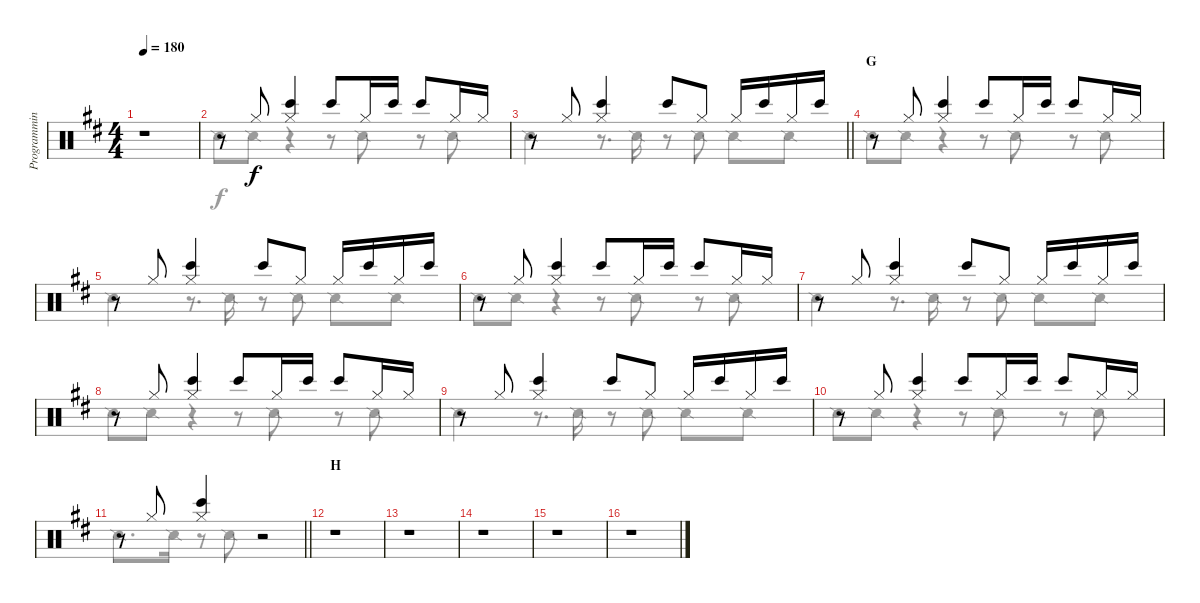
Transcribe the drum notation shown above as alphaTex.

\track ("Programming" "Programmin") {instrument percussion}
\staff {score}
\articulation defaults
\voice
\ts (4 4)
\tempo 180
\clef neutral
\ks d
r.1{dy f} |
r.8 "Hi-Hat (closed)".8 ("Hi-Hat (closed)" "Bongo High (hit)").4 "Bongo High (hit)".8 "Hi-Hat (closed)".16 "Bongo High (hit)".16 "Bongo High (hit)".8 "Hi-Hat (closed)".16 "Hi-Hat (closed)".16 |
\barLineRight lightlight
r.8 "Hi-Hat (closed)".8 ("Hi-Hat (closed)" "Bongo High (hit)").4 "Bongo High (hit)".8 "Hi-Hat (closed)".8 "Hi-Hat (closed)".16 "Bongo High (hit)".16 "Hi-Hat (closed)".16 "Bongo High (hit)".16 |
\section ("" "G")
r.8 "Hi-Hat (closed)".8 ("Hi-Hat (closed)" "Bongo High (hit)").4 "Bongo High (hit)".8 "Hi-Hat (closed)".16 "Bongo High (hit)".16 "Bongo High (hit)".8 "Hi-Hat (closed)".16 "Hi-Hat (closed)".16 |
r.8 "Hi-Hat (closed)".8 ("Hi-Hat (closed)" "Bongo High (hit)").4 "Bongo High (hit)".8 "Hi-Hat (closed)".8 "Hi-Hat (closed)".16 "Bongo High (hit)".16 "Hi-Hat (closed)".16 "Bongo High (hit)".16 |
r.8 "Hi-Hat (closed)".8 ("Hi-Hat (closed)" "Bongo High (hit)").4 "Bongo High (hit)".8 "Hi-Hat (closed)".16 "Bongo High (hit)".16 "Bongo High (hit)".8 "Hi-Hat (closed)".16 "Hi-Hat (closed)".16 |
r.8 "Hi-Hat (closed)".8 ("Hi-Hat (closed)" "Bongo High (hit)").4 "Bongo High (hit)".8 "Hi-Hat (closed)".8 "Hi-Hat (closed)".16 "Bongo High (hit)".16 "Hi-Hat (closed)".16 "Bongo High (hit)".16 |
r.8 "Hi-Hat (closed)".8 ("Hi-Hat (closed)" "Bongo High (hit)").4 "Bongo High (hit)".8 "Hi-Hat (closed)".16 "Bongo High (hit)".16 "Bongo High (hit)".8 "Hi-Hat (closed)".16 "Hi-Hat (closed)".16 |
r.8 "Hi-Hat (closed)".8 ("Hi-Hat (closed)" "Bongo High (hit)").4 "Bongo High (hit)".8 "Hi-Hat (closed)".8 "Hi-Hat (closed)".16 "Bongo High (hit)".16 "Hi-Hat (closed)".16 "Bongo High (hit)".16 |
r.8 "Hi-Hat (closed)".8 ("Hi-Hat (closed)" "Bongo High (hit)").4 "Bongo High (hit)".8 "Hi-Hat (closed)".16 "Bongo High (hit)".16 "Bongo High (hit)".8 "Hi-Hat (closed)".16 "Hi-Hat (closed)".16 |
\barLineRight lightlight
r.8 "Hi-Hat (closed)".8 ("Hi-Hat (closed)" "Bongo High (hit)").4 r.2 |
\section ("" "H")
r.1 |
r.1 |
r.1 |
r.1 |
r.1
\voice
\clef neutral
\ottava regular
\simile none
\ks d
r.1{dy f} |
"Snare (side stick) 2".8 "Snare (side stick) 2".8 r.4 r.8 "Snare (side stick) 2".8 r.8 "Snare (side stick) 2".8 |
\barLineRight lightlight "Snare (side stick) 2".4
r.8{d} "Snare (side stick) 2".16 r.8 "Snare (side stick) 2".8 "Snare (side stick) 2".8 "Snare (side stick) 2".8 |
"Snare (side stick) 2".8 "Snare (side stick) 2".8 r.4 r.8 "Snare (side stick) 2".8 r.8 "Snare (side stick) 2".8 |
"Snare (side stick) 2".4 r.8{d} "Snare (side stick) 2".16 r.8 "Snare (side stick) 2".8 "Snare (side stick) 2".8 "Snare (side stick) 2".8 |
"Snare (side stick) 2".8 "Snare (side stick) 2".8 r.4 r.8 "Snare (side stick) 2".8 r.8 "Snare (side stick) 2".8 |
"Snare (side stick) 2".4 r.8{d} "Snare (side stick) 2".16 r.8 "Snare (side stick) 2".8 "Snare (side stick) 2".8 "Snare (side stick) 2".8 |
"Snare (side stick) 2".8 "Snare (side stick) 2".8 r.4 r.8 "Snare (side stick) 2".8 r.8 "Snare (side stick) 2".8 |
"Snare (side stick) 2".4 r.8{d} "Snare (side stick) 2".16 r.8 "Snare (side stick) 2".8 "Snare (side stick) 2".8 "Snare (side stick) 2".8 |
"Snare (side stick) 2".8 "Snare (side stick) 2".8 r.4 r.8 "Snare (side stick) 2".8 r.8 "Snare (side stick) 2".8 |
\barLineRight lightlight "Snare (side stick) 2".8{d} "Snare (side stick) 2".16
r.8 "Snare (side stick) 2".8 r.2 |
r.1 |
r.1 |
r.1 |
r.1 |
r.1
